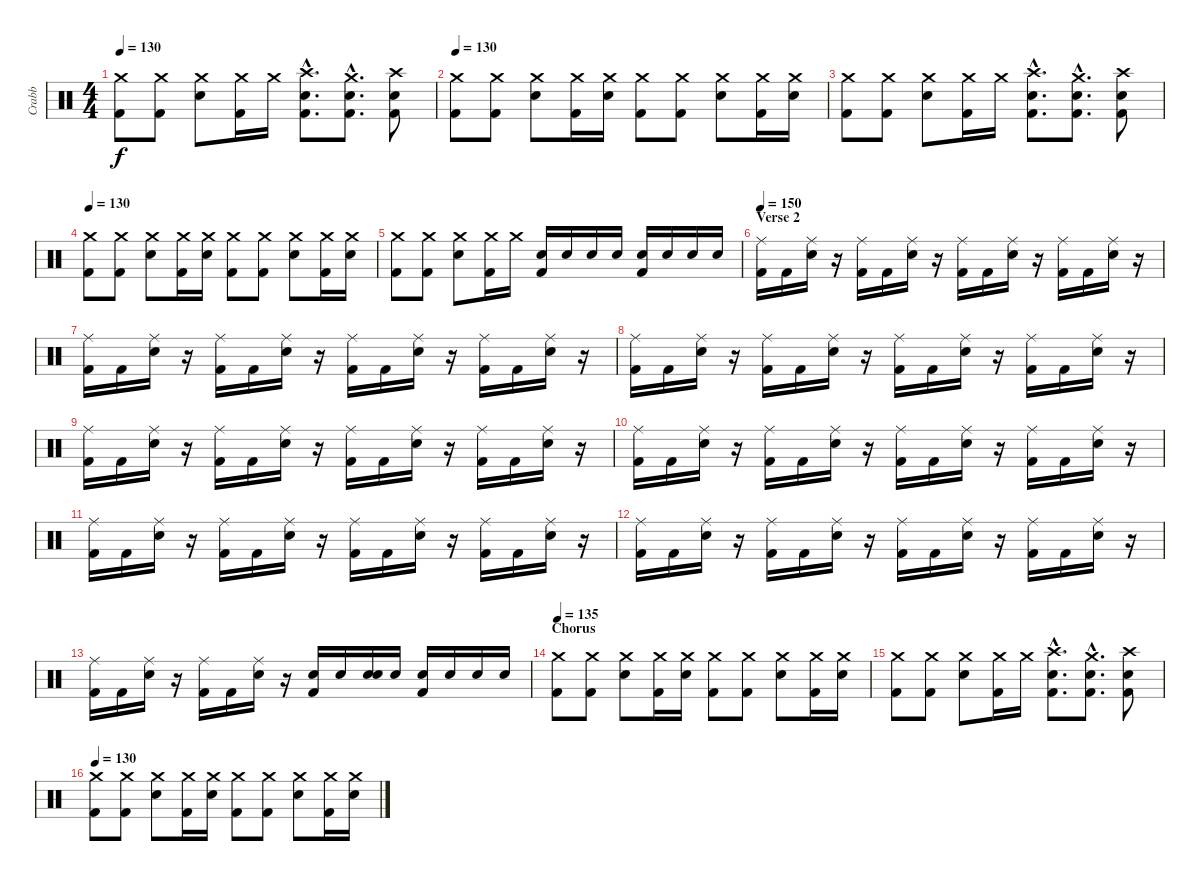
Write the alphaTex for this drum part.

\track ("Crabb" "Crabb") {instrument percussion}
\staff {score}
\articulation defaults
\ts (4 4)
\tempo 130
\clef neutral
\ks c
("Crash medium (hit)" "Kick (hit) 2").8{dy f} ("Crash medium (hit)" "Kick (hit) 2").8 ("Crash medium (hit)" "Electric Snare (hit)").8 ("Crash medium (hit)" "Kick (hit) 2").16 "Crash medium (hit)".16 ("Crash high (hit)"{hac} "Kick (hit) 2"{hac} "Electric Snare (hit)"{hac}).8{d} ("Crash medium (hit)"{hac} "Kick (hit) 2"{hac} "Electric Snare (hit)"{hac}).8{d} ("Crash high (hit)" "Kick (hit) 2" "Electric Snare (hit)").8 |
\tempo 130
("Crash medium (hit)" "Kick (hit) 2").8 ("Crash medium (hit)" "Kick (hit) 2").8 ("Crash medium (hit)" "Electric Snare (hit)").8 ("Crash medium (hit)" "Kick (hit) 2").16 ("Crash medium (hit)" "Electric Snare (hit)").16 ("Crash medium (hit)" "Kick (hit) 2").8 ("Crash medium (hit)" "Kick (hit) 2").8 ("Crash medium (hit)" "Electric Snare (hit)").8 ("Crash medium (hit)" "Kick (hit) 2").16 ("Crash medium (hit)" "Electric Snare (hit)").16 |
("Crash medium (hit)" "Kick (hit) 2").8 ("Crash medium (hit)" "Kick (hit) 2").8 ("Crash medium (hit)" "Electric Snare (hit)").8 ("Crash medium (hit)" "Kick (hit) 2").16 "Crash medium (hit)".16 ("Crash high (hit)"{hac} "Kick (hit) 2"{hac} "Electric Snare (hit)"{hac}).8{d} ("Crash medium (hit)"{hac} "Kick (hit) 2"{hac} "Electric Snare (hit)"{hac}).8{d} ("Crash high (hit)" "Kick (hit) 2" "Electric Snare (hit)").8 |
\tempo 130
("Crash medium (hit)" "Kick (hit) 2").8 ("Crash medium (hit)" "Kick (hit) 2").8 ("Crash medium (hit)" "Electric Snare (hit)").8 ("Crash medium (hit)" "Kick (hit) 2").16 ("Crash medium (hit)" "Electric Snare (hit)").16 ("Crash medium (hit)" "Kick (hit) 2").8 ("Crash medium (hit)" "Kick (hit) 2").8 ("Crash medium (hit)" "Electric Snare (hit)").8 ("Crash medium (hit)" "Kick (hit) 2").16 ("Crash medium (hit)" "Electric Snare (hit)").16 |
("Crash medium (hit)" "Kick (hit) 2").8 ("Crash medium (hit)" "Kick (hit) 2").8 ("Crash medium (hit)" "Electric Snare (hit)").8 ("Crash medium (hit)" "Kick (hit) 2").16 "Crash medium (hit)".16 ("Kick (hit) 2" "Electric Snare (hit)").16 "Electric Snare (hit)".16 "Electric Snare (hit)".16 "Electric Snare (hit)".16 ("Kick (hit) 2" "Electric Snare (hit)").16 "Electric Snare (hit)".16 "Electric Snare (hit)".16 "Electric Snare (hit)".16 |
\section ("" "Verse 2")
\tempo 150
("Ride (middle)" "Kick (hit) 2").16 "Kick (hit) 2".16 ("Ride (middle)" "Electric Snare (hit)").16 r.16 ("Ride (middle)" "Kick (hit) 2").16 "Kick (hit) 2".16 ("Ride (middle)" "Electric Snare (hit)").16 r.16 ("Ride (middle)" "Kick (hit) 2").16 "Kick (hit) 2".16 ("Ride (middle)" "Electric Snare (hit)").16 r.16 ("Ride (middle)" "Kick (hit) 2").16 "Kick (hit) 2".16 ("Ride (middle)" "Electric Snare (hit)").16 r.16 |
("Ride (middle)" "Kick (hit) 2").16 "Kick (hit) 2".16 ("Ride (middle)" "Electric Snare (hit)").16 r.16 ("Ride (middle)" "Kick (hit) 2").16 "Kick (hit) 2".16 ("Ride (middle)" "Electric Snare (hit)").16 r.16 ("Ride (middle)" "Kick (hit) 2").16 "Kick (hit) 2".16 ("Ride (middle)" "Electric Snare (hit)").16 r.16 ("Ride (middle)" "Kick (hit) 2").16 "Kick (hit) 2".16 ("Ride (middle)" "Electric Snare (hit)").16 r.16 |
("Ride (middle)" "Kick (hit) 2").16 "Kick (hit) 2".16 ("Ride (middle)" "Electric Snare (hit)").16 r.16 ("Ride (middle)" "Kick (hit) 2").16 "Kick (hit) 2".16 ("Ride (middle)" "Electric Snare (hit)").16 r.16 ("Ride (middle)" "Kick (hit) 2").16 "Kick (hit) 2".16 ("Ride (middle)" "Electric Snare (hit)").16 r.16 ("Ride (middle)" "Kick (hit) 2").16 "Kick (hit) 2".16 ("Ride (middle)" "Electric Snare (hit)").16 r.16 |
("Ride (middle)" "Kick (hit) 2").16 "Kick (hit) 2".16 ("Ride (middle)" "Electric Snare (hit)").16 r.16 ("Ride (middle)" "Kick (hit) 2").16 "Kick (hit) 2".16 ("Ride (middle)" "Electric Snare (hit)").16 r.16 ("Ride (middle)" "Kick (hit) 2").16 "Kick (hit) 2".16 ("Ride (middle)" "Electric Snare (hit)").16 r.16 ("Ride (middle)" "Kick (hit) 2").16 "Kick (hit) 2".16 ("Ride (middle)" "Electric Snare (hit)").16 r.16 |
("Ride (middle)" "Kick (hit) 2").16 "Kick (hit) 2".16 ("Ride (middle)" "Electric Snare (hit)").16 r.16 ("Ride (middle)" "Kick (hit) 2").16 "Kick (hit) 2".16 ("Ride (middle)" "Electric Snare (hit)").16 r.16 ("Ride (middle)" "Kick (hit) 2").16 "Kick (hit) 2".16 ("Ride (middle)" "Electric Snare (hit)").16 r.16 ("Ride (middle)" "Kick (hit) 2").16 "Kick (hit) 2".16 ("Ride (middle)" "Electric Snare (hit)").16 r.16 |
("Ride (middle)" "Kick (hit) 2").16 "Kick (hit) 2".16 ("Ride (middle)" "Electric Snare (hit)").16 r.16 ("Ride (middle)" "Kick (hit) 2").16 "Kick (hit) 2".16 ("Ride (middle)" "Electric Snare (hit)").16 r.16 ("Ride (middle)" "Kick (hit) 2").16 "Kick (hit) 2".16 ("Ride (middle)" "Electric Snare (hit)").16 r.16 ("Ride (middle)" "Kick (hit) 2").16 "Kick (hit) 2".16 ("Ride (middle)" "Electric Snare (hit)").16 r.16 |
("Ride (middle)" "Kick (hit) 2").16 "Kick (hit) 2".16 ("Ride (middle)" "Electric Snare (hit)").16 r.16 ("Ride (middle)" "Kick (hit) 2").16 "Kick (hit) 2".16 ("Ride (middle)" "Electric Snare (hit)").16 r.16 ("Ride (middle)" "Kick (hit) 2").16 "Kick (hit) 2".16 ("Ride (middle)" "Electric Snare (hit)").16 r.16 ("Ride (middle)" "Kick (hit) 2").16 "Kick (hit) 2".16 ("Ride (middle)" "Electric Snare (hit)").16 r.16 |
("Ride (middle)" "Kick (hit) 2").16 "Kick (hit) 2".16 ("Ride (middle)" "Electric Snare (hit)").16 r.16 ("Ride (middle)" "Kick (hit) 2").16 "Kick (hit) 2".16 ("Ride (middle)" "Electric Snare (hit)").16 r.16 ("Electric Snare (hit)" "Kick (hit) 2").16 "Electric Snare (hit)".16 ("Electric Snare (hit)" "Electric Snare (hit)").16 "Electric Snare (hit)".16 ("Electric Snare (hit)" "Kick (hit) 2").16 "Electric Snare (hit)".16 "Electric Snare (hit)".16 "Electric Snare (hit)".16 |
\section ("" "Chorus")
\tempo 130
\tempo 135
("Crash medium (hit)" "Kick (hit) 2").8 ("Crash medium (hit)" "Kick (hit) 2").8 ("Crash medium (hit)" "Electric Snare (hit)").8 ("Crash medium (hit)" "Kick (hit) 2").16 ("Crash medium (hit)" "Electric Snare (hit)").16 ("Crash medium (hit)" "Kick (hit) 2").8 ("Crash medium (hit)" "Kick (hit) 2").8 ("Crash medium (hit)" "Electric Snare (hit)").8 ("Crash medium (hit)" "Kick (hit) 2").16 ("Crash medium (hit)" "Electric Snare (hit)").16 |
("Crash medium (hit)" "Kick (hit) 2").8 ("Crash medium (hit)" "Kick (hit) 2").8 ("Crash medium (hit)" "Electric Snare (hit)").8 ("Crash medium (hit)" "Kick (hit) 2").16 "Crash medium (hit)".16 ("Crash high (hit)"{hac} "Kick (hit) 2"{hac} "Electric Snare (hit)"{hac}).8{d} ("Crash medium (hit)"{hac} "Kick (hit) 2"{hac} "Electric Snare (hit)"{hac}).8{d} ("Crash high (hit)" "Kick (hit) 2" "Electric Snare (hit)").8 |
\tempo 130
("Crash medium (hit)" "Kick (hit) 2").8 ("Crash medium (hit)" "Kick (hit) 2").8 ("Crash medium (hit)" "Electric Snare (hit)").8 ("Crash medium (hit)" "Kick (hit) 2").16 ("Crash medium (hit)" "Electric Snare (hit)").16 ("Crash medium (hit)" "Kick (hit) 2").8 ("Crash medium (hit)" "Kick (hit) 2").8 ("Crash medium (hit)" "Electric Snare (hit)").8 ("Crash medium (hit)" "Kick (hit) 2").16 ("Crash medium (hit)" "Electric Snare (hit)").16
